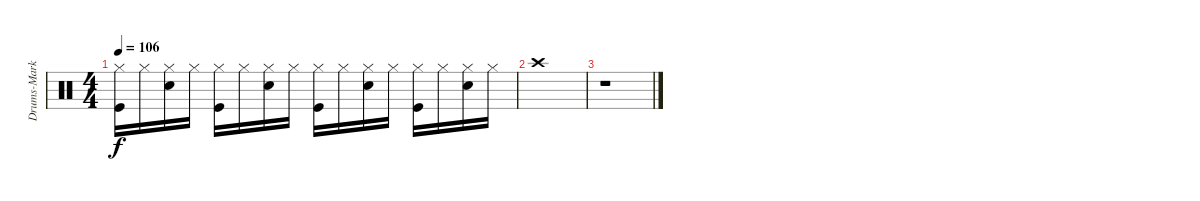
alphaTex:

\track ("Drums-Marky Ramone" "Drums-Mark") {instrument percussion}
\staff {score}
\articulation defaults
\ts (4 4)
\tempo 106
\clef neutral
\ks c
("Hi-Hat (closed)" "Kick (hit)").16{dy f} "Hi-Hat (closed)".16 ("Hi-Hat (closed)" "Electric Snare (hit)").16 "Hi-Hat (closed)".16 ("Hi-Hat (closed)" "Kick (hit)").16 "Hi-Hat (closed)".16 ("Hi-Hat (closed)" "Electric Snare (hit)").16 "Hi-Hat (closed)".16 ("Hi-Hat (closed)" "Kick (hit)").16 "Hi-Hat (closed)".16 ("Hi-Hat (closed)" "Electric Snare (hit)").16 "Hi-Hat (closed)".16 ("Hi-Hat (closed)" "Kick (hit)").16 "Hi-Hat (closed)".16 ("Hi-Hat (closed)" "Electric Snare (hit)").16 "Hi-Hat (closed)".16 |
"Crash high (hit)".1 |
r.1
